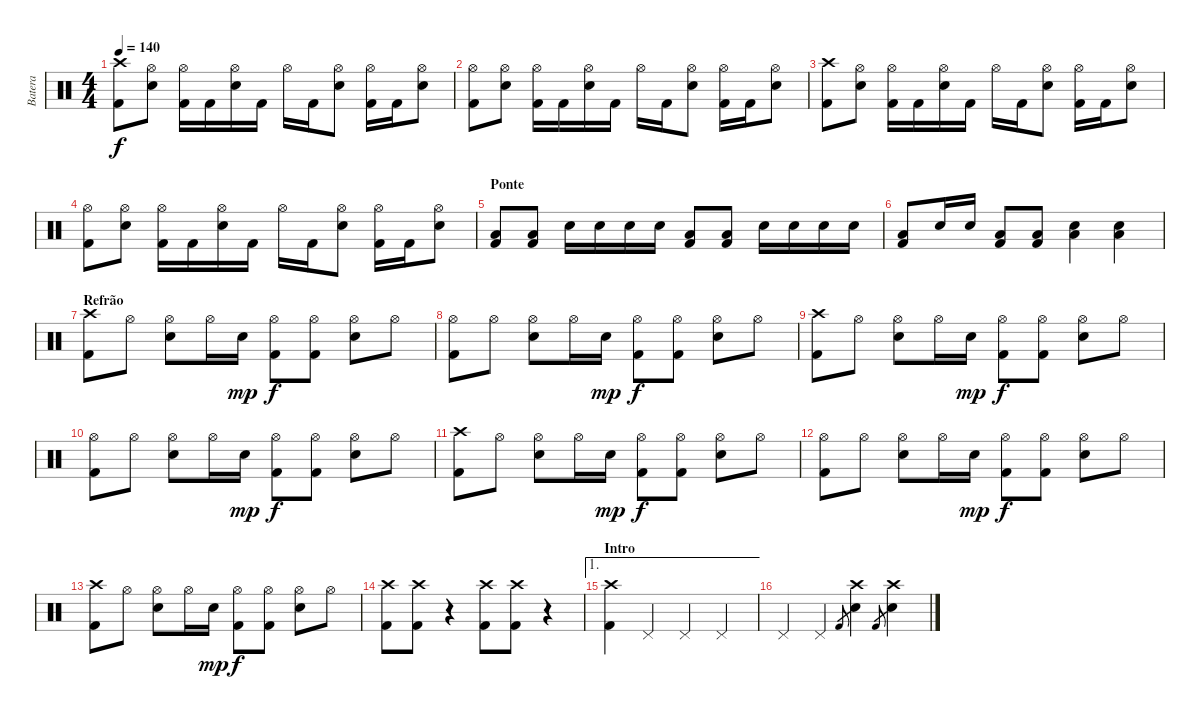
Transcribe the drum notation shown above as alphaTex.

\track ("Batera" "Batera") {instrument percussion}
\staff {score}
\articulation defaults
\ts (4 4)
\tempo 140
\clef neutral
\ks c
("Crash high (hit)" "Kick (hit) 2").8{dy f} ("Hi-Hat (open)" "Snare (hit) 2").8 ("Hi-Hat (open)" "Kick (hit) 2").16 "Kick (hit) 2".16 ("Hi-Hat (open)" "Snare (hit) 2").16 "Kick (hit) 2".16 "Hi-Hat (open)".16 "Kick (hit) 2".16 ("Hi-Hat (open)" "Snare (hit) 2").8 ("Hi-Hat (open)" "Kick (hit) 2").16 "Kick (hit) 2".16 ("Hi-Hat (open)" "Snare (hit) 2").8 |
("Hi-Hat (open)" "Kick (hit) 2").8 ("Hi-Hat (open)" "Snare (hit) 2").8 ("Hi-Hat (open)" "Kick (hit) 2").16 "Kick (hit) 2".16 ("Hi-Hat (open)" "Snare (hit) 2").16 "Kick (hit) 2".16 "Hi-Hat (open)".16 "Kick (hit) 2".16 ("Hi-Hat (open)" "Snare (hit) 2").8 ("Hi-Hat (open)" "Kick (hit) 2").16 "Kick (hit) 2".16 ("Hi-Hat (open)" "Snare (hit) 2").8 |
("Crash high (hit)" "Kick (hit) 2").8 ("Hi-Hat (open)" "Snare (hit) 2").8 ("Hi-Hat (open)" "Kick (hit) 2").16 "Kick (hit) 2".16 ("Hi-Hat (open)" "Snare (hit) 2").16 "Kick (hit) 2".16 "Hi-Hat (open)".16 "Kick (hit) 2".16 ("Hi-Hat (open)" "Snare (hit) 2").8 ("Hi-Hat (open)" "Kick (hit) 2").16 "Kick (hit) 2".16 ("Hi-Hat (open)" "Snare (hit) 2").8 |
("Hi-Hat (open)" "Kick (hit) 2").8 ("Hi-Hat (open)" "Snare (hit) 2").8 ("Hi-Hat (open)" "Kick (hit) 2").16 "Kick (hit) 2".16 ("Hi-Hat (open)" "Snare (hit) 2").16 "Kick (hit) 2".16 "Hi-Hat (open)".16 "Kick (hit) 2".16 ("Hi-Hat (open)" "Snare (hit) 2").8 ("Hi-Hat (open)" "Kick (hit) 2").16 "Kick (hit) 2".16 ("Hi-Hat (open)" "Snare (hit) 2").8 |
\section ("" "Ponte")
("Low Tom (hit)" "Kick (hit) 2").8 ("Low Tom (hit)" "Kick (hit) 2").8 "Snare (hit) 2".16 "Snare (hit) 2".16 "Snare (hit) 2".16 "Snare (hit) 2".16 ("Low Tom (hit)" "Kick (hit) 2").8 ("Low Tom (hit)" "Kick (hit) 2").8 "Snare (hit) 2".16 "Snare (hit) 2".16 "Snare (hit) 2".16 "Snare (hit) 2".16 |
("Low Tom (hit)" "Kick (hit) 2").8 "Snare (hit) 2".16 "Snare (hit) 2".16 ("Low Tom (hit)" "Kick (hit) 2").8 ("Low Tom (hit)" "Kick (hit) 2").8 ("Low Tom (hit)" "Snare (hit) 2").4 ("Low Tom (hit)" "Snare (hit) 2").4 |
\section ("" "Refrão")
("Crash high (hit)" "Kick (hit) 2").8 "Hi-Hat (open)".8 ("Hi-Hat (open)" "Snare (hit) 2").8 "Hi-Hat (open)".16 "Snare (hit) 2".16{dy mp} ("Hi-Hat (open)" "Kick (hit) 2").8{dy f} ("Hi-Hat (open)" "Kick (hit) 2").8 ("Hi-Hat (open)" "Snare (hit) 2").8 "Hi-Hat (open)".8 |
("Hi-Hat (open)" "Kick (hit) 2").8 "Hi-Hat (open)".8 ("Hi-Hat (open)" "Snare (hit) 2").8 "Hi-Hat (open)".16 "Snare (hit) 2".16{dy mp} ("Hi-Hat (open)" "Kick (hit) 2").8{dy f} ("Hi-Hat (open)" "Kick (hit) 2").8 ("Hi-Hat (open)" "Snare (hit) 2").8 "Hi-Hat (open)".8 |
("Crash high (hit)" "Kick (hit) 2").8 "Hi-Hat (open)".8 ("Hi-Hat (open)" "Snare (hit) 2").8 "Hi-Hat (open)".16 "Snare (hit) 2".16{dy mp} ("Hi-Hat (open)" "Kick (hit) 2").8{dy f} ("Hi-Hat (open)" "Kick (hit) 2").8 ("Hi-Hat (open)" "Snare (hit) 2").8 "Hi-Hat (open)".8 |
("Hi-Hat (open)" "Kick (hit) 2").8 "Hi-Hat (open)".8 ("Hi-Hat (open)" "Snare (hit) 2").8 "Hi-Hat (open)".16 "Snare (hit) 2".16{dy mp} ("Hi-Hat (open)" "Kick (hit) 2").8{dy f} ("Hi-Hat (open)" "Kick (hit) 2").8 ("Hi-Hat (open)" "Snare (hit) 2").8 "Hi-Hat (open)".8 |
("Crash high (hit)" "Kick (hit) 2").8 "Hi-Hat (open)".8 ("Hi-Hat (open)" "Snare (hit) 2").8 "Hi-Hat (open)".16 "Snare (hit) 2".16{dy mp} ("Hi-Hat (open)" "Kick (hit) 2").8{dy f} ("Hi-Hat (open)" "Kick (hit) 2").8 ("Hi-Hat (open)" "Snare (hit) 2").8 "Hi-Hat (open)".8 |
("Hi-Hat (open)" "Kick (hit) 2").8 "Hi-Hat (open)".8 ("Hi-Hat (open)" "Snare (hit) 2").8 "Hi-Hat (open)".16 "Snare (hit) 2".16{dy mp} ("Hi-Hat (open)" "Kick (hit) 2").8{dy f} ("Hi-Hat (open)" "Kick (hit) 2").8 ("Hi-Hat (open)" "Snare (hit) 2").8 "Hi-Hat (open)".8 |
("Crash high (hit)" "Kick (hit) 2").8 "Hi-Hat (open)".8 ("Hi-Hat (open)" "Snare (hit) 2").8 "Hi-Hat (open)".16 "Snare (hit) 2".16{dy mp} ("Hi-Hat (open)" "Kick (hit) 2").8{dy f} ("Hi-Hat (open)" "Kick (hit) 2").8 ("Hi-Hat (open)" "Snare (hit) 2").8 "Hi-Hat (open)".8 |
("Crash high (hit)" "Kick (hit) 2").8 ("Crash high (hit)" "Kick (hit) 2").8 r.4 ("Crash high (hit)" "Kick (hit) 2").8 ("Crash high (hit)" "Kick (hit) 2").8 r.4 |
\ae 1
\section ("" "Intro")
("Crash high (hit)" "Kick (hit) 2").4 "Pedal Hi-Hat (hit)".4 "Pedal Hi-Hat (hit)".4 "Pedal Hi-Hat (hit)".4 |
"Pedal Hi-Hat (hit)".4 "Pedal Hi-Hat (hit)".4 "Kick (hit) 2".8{gr} ("Crash high (hit)" "Snare (hit) 2").4 "Kick (hit) 2".8{gr} ("Crash high (hit)" "Snare (hit) 2").4
